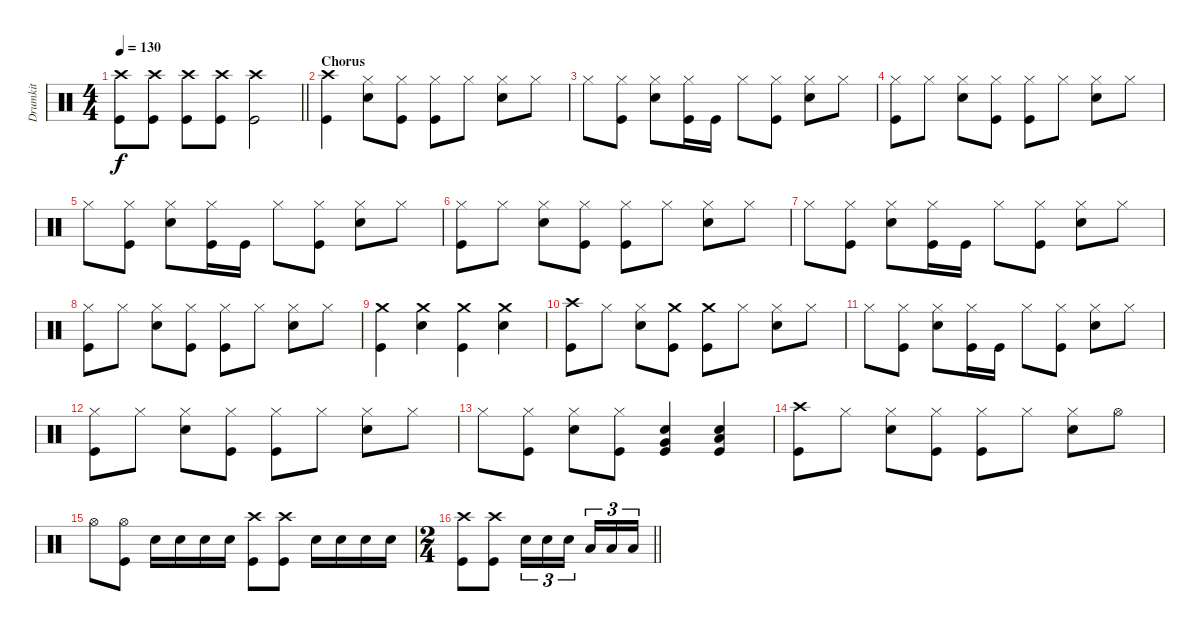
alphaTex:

\track ("Drumkit" "Drumkit") {instrument percussion}
\staff {score}
\articulation defaults
\ts (4 4)
\tempo 130
\clef neutral
\barLineRight lightlight
\ks c
("Crash high (hit)" "Kick (hit)").8{dy f} ("Crash high (hit)" "Kick (hit)").8 ("Crash high (hit)" "Kick (hit)").8 ("Crash high (hit)" "Kick (hit)").8 ("Crash high (hit)" "Kick (hit)").2 |
\section ("" "Chorus")
("Kick (hit)" "Crash high (hit)").4 ("Hi-Hat (closed)" "Snare (hit) 2").8 ("Hi-Hat (closed)" "Kick (hit)").8 ("Hi-Hat (closed)" "Kick (hit)").8 "Hi-Hat (closed)".8 ("Hi-Hat (closed)" "Snare (hit) 2").8 "Hi-Hat (closed)".8 |
"Hi-Hat (closed)".8 ("Hi-Hat (closed)" "Kick (hit)").8 ("Hi-Hat (closed)" "Snare (hit) 2").8 ("Hi-Hat (closed)" "Kick (hit)").16 "Kick (hit)".16 "Hi-Hat (closed)".8 ("Hi-Hat (closed)" "Kick (hit)").8 ("Hi-Hat (closed)" "Snare (hit) 2").8 "Hi-Hat (closed)".8 |
("Hi-Hat (closed)" "Kick (hit)").8 "Hi-Hat (closed)".8 ("Hi-Hat (closed)" "Snare (hit) 2").8 ("Hi-Hat (closed)" "Kick (hit)").8 ("Hi-Hat (closed)" "Kick (hit)").8 "Hi-Hat (closed)".8 ("Hi-Hat (closed)" "Snare (hit) 2").8 "Hi-Hat (closed)".8 |
"Hi-Hat (closed)".8 ("Hi-Hat (closed)" "Kick (hit)").8 ("Hi-Hat (closed)" "Snare (hit) 2").8 ("Hi-Hat (closed)" "Kick (hit)").16 "Kick (hit)".16 "Hi-Hat (closed)".8 ("Hi-Hat (closed)" "Kick (hit)").8 ("Hi-Hat (closed)" "Snare (hit) 2").8 "Hi-Hat (closed)".8 |
("Hi-Hat (closed)" "Kick (hit)").8 "Hi-Hat (closed)".8 ("Hi-Hat (closed)" "Snare (hit) 2").8 ("Hi-Hat (closed)" "Kick (hit)").8 ("Hi-Hat (closed)" "Kick (hit)").8 "Hi-Hat (closed)".8 ("Hi-Hat (closed)" "Snare (hit) 2").8 "Hi-Hat (closed)".8 |
"Hi-Hat (closed)".8 ("Hi-Hat (closed)" "Kick (hit)").8 ("Hi-Hat (closed)" "Snare (hit) 2").8 ("Hi-Hat (closed)" "Kick (hit)").16 "Kick (hit)".16 "Hi-Hat (closed)".8 ("Hi-Hat (closed)" "Kick (hit)").8 ("Hi-Hat (closed)" "Snare (hit) 2").8 "Hi-Hat (closed)".8 |
("Hi-Hat (closed)" "Kick (hit)").8 "Hi-Hat (closed)".8 ("Hi-Hat (closed)" "Snare (hit) 2").8 ("Hi-Hat (closed)" "Kick (hit)").8 ("Hi-Hat (closed)" "Kick (hit)").8 "Hi-Hat (closed)".8 ("Hi-Hat (closed)" "Snare (hit) 2").8 "Hi-Hat (closed)".8 |
("Crash medium (hit)" "Kick (hit)").4 ("Crash medium (hit)" "Snare (hit) 2").4 ("Crash medium (hit)" "Kick (hit)").4 ("Crash medium (hit)" "Snare (hit) 2").4 |
("Kick (hit)" "Crash high (hit)").8 "Hi-Hat (closed)".8 ("Hi-Hat (closed)" "Snare (hit) 2").8 ("Kick (hit)" "Crash medium (hit)").8 ("Kick (hit)" "Crash medium (hit)").8 "Hi-Hat (closed)".8 ("Hi-Hat (closed)" "Snare (hit) 2").8 "Hi-Hat (closed)".8 |
"Hi-Hat (closed)".8 ("Hi-Hat (closed)" "Kick (hit)").8 ("Hi-Hat (closed)" "Snare (hit) 2").8 ("Hi-Hat (closed)" "Kick (hit)").16 "Kick (hit)".16 "Hi-Hat (closed)".8 ("Hi-Hat (closed)" "Kick (hit)").8 ("Hi-Hat (closed)" "Snare (hit) 2").8 "Hi-Hat (closed)".8 |
("Hi-Hat (closed)" "Kick (hit)").8 "Hi-Hat (closed)".8 ("Hi-Hat (closed)" "Snare (hit) 2").8 ("Hi-Hat (closed)" "Kick (hit)").8 ("Hi-Hat (closed)" "Kick (hit)").8 "Hi-Hat (closed)".8 ("Hi-Hat (closed)" "Snare (hit) 2").8 "Hi-Hat (closed)".8 |
"Hi-Hat (closed)".8 ("Hi-Hat (closed)" "Kick (hit)").8 ("Hi-Hat (closed)" "Snare (hit) 2").8 ("Hi-Hat (closed)" "Kick (hit)").8 ("Snare (hit) 2" "Very Low Tom (hit)" "Kick (hit)").4 ("Snare (hit) 2" "Low Floor Tom (hit)" "Kick (hit)").4 |
("Kick (hit)" "Crash high (hit)").8 "Hi-Hat (closed)".8 ("Hi-Hat (closed)" "Snare (hit) 2").8 ("Hi-Hat (closed)" "Kick (hit)").8 ("Hi-Hat (closed)" "Kick (hit)").8 "Hi-Hat (closed)".8 ("Hi-Hat (closed)" "Snare (hit) 2").8 "Hi-Hat (open)".8 |
"Hi-Hat (open)".8 ("Hi-Hat (open)" "Kick (hit)").8 "Snare (hit) 2".16 "Snare (hit) 2".16 "Snare (hit) 2".16 "Snare (hit) 2".16 ("Crash high (hit)" "Kick (hit)").8 ("Crash high (hit)" "Kick (hit)").8 "Snare (hit) 2".16 "Snare (hit) 2".16 "Snare (hit) 2".16 "Snare (hit) 2".16 |
\ts (2 4)
\barLineRight lightlight
("Crash high (hit)" "Kick (hit)").8 ("Crash high (hit)" "Kick (hit)").8 "Snare (hit) 2".16{tu (3 2)} "Snare (hit) 2".16{tu (3 2)} "Snare (hit) 2".16{tu (3 2) beam splitsecondary} "Low Tom (hit)".16{tu (3 2)} "Low Tom (hit)".16{tu (3 2)} "Low Tom (hit)".16{tu (3 2)}
